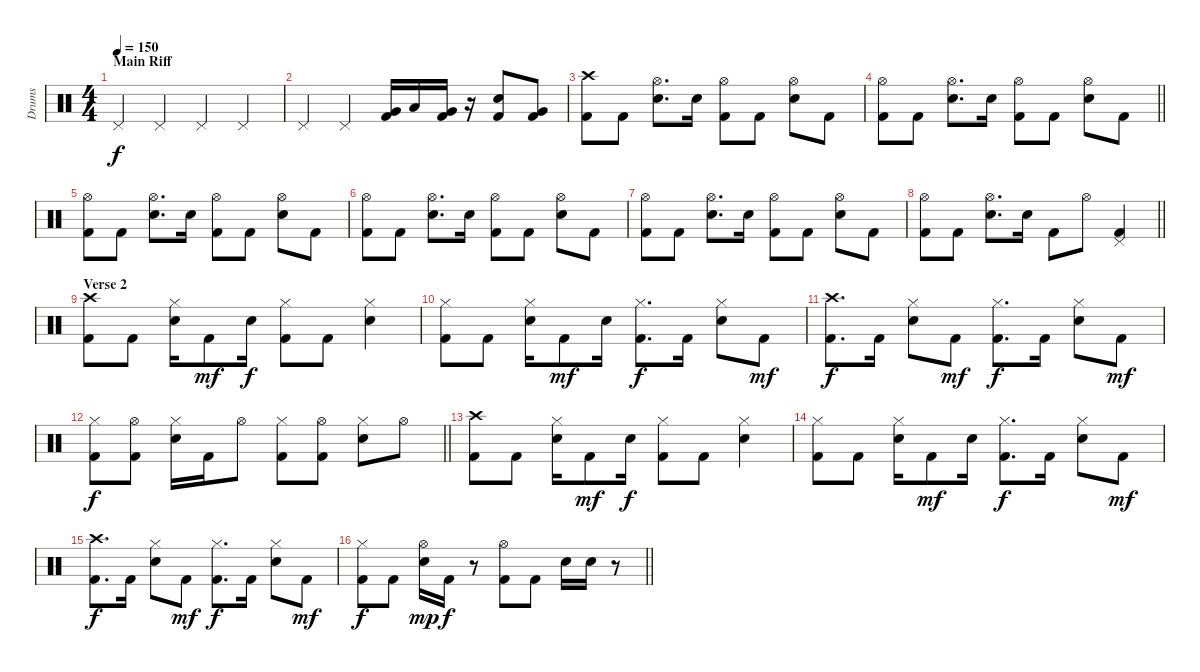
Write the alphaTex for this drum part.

\track ("Drums" "Drums") {instrument percussion}
\staff {score}
\articulation defaults
\ts (4 4)
\section ("" "Main Riff")
\tempo 150
\clef neutral
\ks c "Pedal Hi-Hat (hit)".4{dy f} "Pedal Hi-Hat (hit)".4 "Pedal Hi-Hat (hit)".4 "Pedal Hi-Hat (hit)".4
|
"Pedal Hi-Hat (hit)".4 "Pedal Hi-Hat (hit)".4 ("Very Low Tom (hit)" "Kick (hit) 2").16 "Low Tom (hit)".16 ("Very Low Tom (hit)" "Kick (hit) 2").16 r.16 ("Electric Snare (hit)" "Kick (hit) 2").8 ("Very Low Tom (hit)" "Kick (hit) 2").8 |
("Crash high (hit)" "Kick (hit) 2").8 "Kick (hit) 2".8 ("Hi-Hat (open)" "Electric Snare (hit)").8{d} "Electric Snare (hit)".16 ("Hi-Hat (open)" "Kick (hit) 2").8 "Kick (hit) 2".8 ("Hi-Hat (open)" "Electric Snare (hit)").8 "Kick (hit) 2".8 |
\barLineRight lightlight
("Hi-Hat (open)" "Kick (hit) 2").8 "Kick (hit) 2".8 ("Hi-Hat (open)" "Electric Snare (hit)").8{d} "Electric Snare (hit)".16 ("Hi-Hat (open)" "Kick (hit) 2").8 "Kick (hit) 2".8 ("Hi-Hat (open)" "Electric Snare (hit)").8 "Kick (hit) 2".8 |
("Hi-Hat (open)" "Kick (hit) 2").8 "Kick (hit) 2".8 ("Hi-Hat (open)" "Electric Snare (hit)").8{d} "Electric Snare (hit)".16 ("Hi-Hat (open)" "Kick (hit) 2").8 "Kick (hit) 2".8 ("Hi-Hat (open)" "Electric Snare (hit)").8 "Kick (hit) 2".8 |
("Hi-Hat (open)" "Kick (hit) 2").8 "Kick (hit) 2".8 ("Hi-Hat (open)" "Electric Snare (hit)").8{d} "Electric Snare (hit)".16 ("Hi-Hat (open)" "Kick (hit) 2").8 "Kick (hit) 2".8 ("Hi-Hat (open)" "Electric Snare (hit)").8 "Kick (hit) 2".8 |
("Hi-Hat (open)" "Kick (hit) 2").8 "Kick (hit) 2".8 ("Hi-Hat (open)" "Electric Snare (hit)").8{d} "Electric Snare (hit)".16 ("Hi-Hat (open)" "Kick (hit) 2").8 "Kick (hit) 2".8 ("Hi-Hat (open)" "Electric Snare (hit)").8 "Kick (hit) 2".8 |
\barLineRight lightlight
("Hi-Hat (open)" "Kick (hit) 2").8 "Kick (hit) 2".8 ("Hi-Hat (open)" "Electric Snare (hit)").8{d} "Electric Snare (hit)".16 "Kick (hit) 2".8 "Hi-Hat (open)".8 ("Pedal Hi-Hat (hit)" "Kick (hit) 2").4 |
\section ("" "Verse 2")
("Crash high (hit)" "Kick (hit) 2").8 "Kick (hit) 2".8 ("Hi-Hat (closed)" "Electric Snare (hit)").16 "Kick (hit) 2".8{dy mf} "Electric Snare (hit)".16{dy f} ("Hi-Hat (closed)" "Kick (hit) 2").8 "Kick (hit) 2".8 ("Hi-Hat (closed)" "Electric Snare (hit)").4 |
("Hi-Hat (closed)" "Kick (hit) 2").8 "Kick (hit) 2".8 ("Hi-Hat (closed)" "Electric Snare (hit)").16 "Kick (hit) 2".8{dy mf} "Electric Snare (hit)".16 ("Hi-Hat (closed)" "Kick (hit) 2").8{d dy f} "Kick (hit) 2".16 ("Hi-Hat (closed)" "Electric Snare (hit)").8 "Kick (hit) 2".8{dy mf} |
("Crash high (hit)" "Kick (hit) 2").8{d dy f} "Kick (hit) 2".16 ("Hi-Hat (closed)" "Electric Snare (hit)").8 "Kick (hit) 2".8{dy mf} ("Hi-Hat (closed)" "Kick (hit) 2").8{d dy f} "Kick (hit) 2".16 ("Hi-Hat (closed)" "Electric Snare (hit)").8 "Kick (hit) 2".8{dy mf} |
\barLineRight lightlight
("Hi-Hat (closed)" "Kick (hit) 2").8{dy f} ("Hi-Hat (open)" "Kick (hit) 2").8 ("Hi-Hat (closed)" "Electric Snare (hit)").16 "Kick (hit) 2".16 "Hi-Hat (open)".8 ("Hi-Hat (closed)" "Kick (hit) 2").8 ("Hi-Hat (open)" "Kick (hit) 2").8 ("Hi-Hat (closed)" "Electric Snare (hit)").8 "Hi-Hat (open)".8 |
("Crash high (hit)" "Kick (hit) 2").8 "Kick (hit) 2".8 ("Hi-Hat (closed)" "Electric Snare (hit)").16 "Kick (hit) 2".8{dy mf} "Electric Snare (hit)".16{dy f} ("Hi-Hat (closed)" "Kick (hit) 2").8 "Kick (hit) 2".8 ("Hi-Hat (closed)" "Electric Snare (hit)").4 |
("Hi-Hat (closed)" "Kick (hit) 2").8 "Kick (hit) 2".8 ("Hi-Hat (closed)" "Electric Snare (hit)").16 "Kick (hit) 2".8{dy mf} "Electric Snare (hit)".16 ("Hi-Hat (closed)" "Kick (hit) 2").8{d dy f} "Kick (hit) 2".16 ("Hi-Hat (closed)" "Electric Snare (hit)").8 "Kick (hit) 2".8{dy mf} |
("Crash high (hit)" "Kick (hit) 2").8{d dy f} "Kick (hit) 2".16 ("Hi-Hat (closed)" "Electric Snare (hit)").8 "Kick (hit) 2".8{dy mf} ("Hi-Hat (closed)" "Kick (hit) 2").8{d dy f} "Kick (hit) 2".16 ("Hi-Hat (closed)" "Electric Snare (hit)").8 "Kick (hit) 2".8{dy mf} |
\barLineRight lightlight
("Hi-Hat (closed)" "Kick (hit) 2").8{dy f} "Kick (hit) 2".8 ("Hi-Hat (open)" "Electric Snare (hit)").16{dy mp} "Kick (hit) 2".16{dy f} r.8 ("Hi-Hat (open)" "Kick (hit) 2").8 "Kick (hit) 2".8 "Electric Snare (hit)".16 "Electric Snare (hit)".16 r.8
